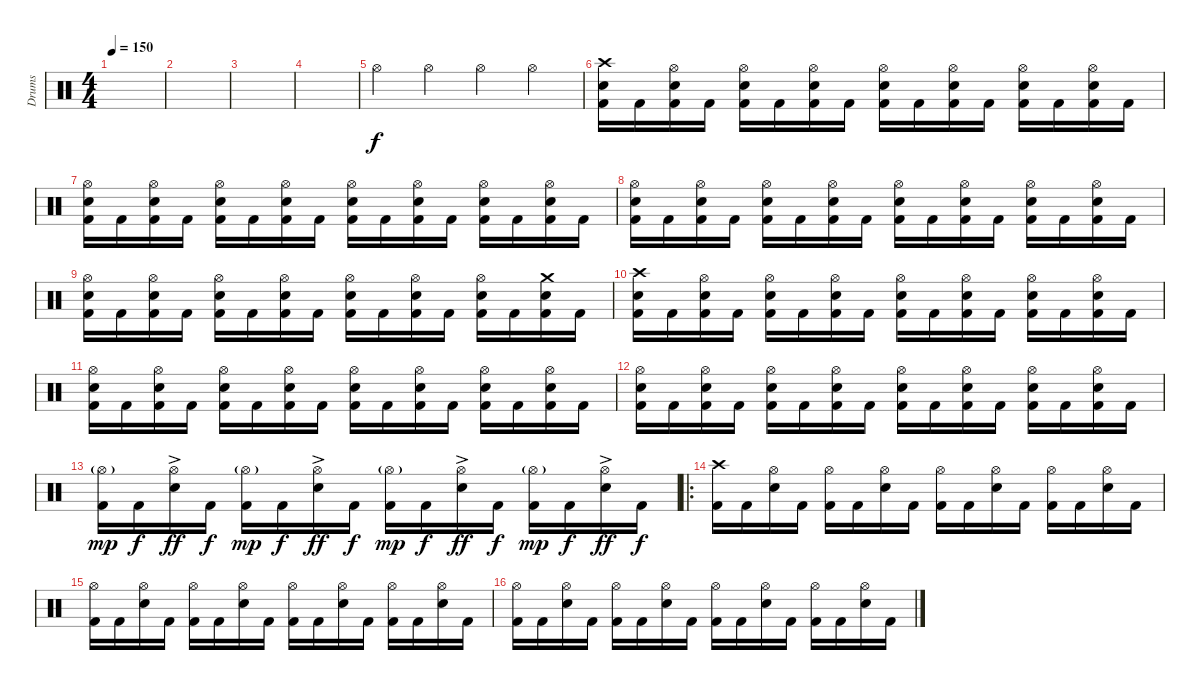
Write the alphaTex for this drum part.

\track ("Drums" "Drums") {instrument percussion}
\staff {score}
\articulation defaults
\ts (4 4)
\tempo 150
\clef neutral
\ks c
|
|
|
|
"Hi-Hat (open)".4 "Hi-Hat (open)".4 "Hi-Hat (open)".4 "Hi-Hat (open)".4 |
("Crash high (hit)" "Electric Snare (hit)" "Kick (hit) 2").16 "Kick (hit) 2".16 ("Hi-Hat (open)" "Electric Snare (hit)" "Kick (hit) 2").16 "Kick (hit) 2".16 ("Hi-Hat (open)" "Electric Snare (hit)" "Kick (hit) 2").16 "Kick (hit) 2".16 ("Hi-Hat (open)" "Electric Snare (hit)" "Kick (hit) 2").16 "Kick (hit) 2".16 ("Hi-Hat (open)" "Electric Snare (hit)" "Kick (hit) 2").16 "Kick (hit) 2".16 ("Hi-Hat (open)" "Electric Snare (hit)" "Kick (hit) 2").16 "Kick (hit) 2".16 ("Hi-Hat (open)" "Electric Snare (hit)" "Kick (hit) 2").16 "Kick (hit) 2".16 ("Hi-Hat (open)" "Electric Snare (hit)" "Kick (hit) 2").16 "Kick (hit) 2".16 |
("Hi-Hat (open)" "Electric Snare (hit)" "Kick (hit) 2").16 "Kick (hit) 2".16 ("Hi-Hat (open)" "Electric Snare (hit)" "Kick (hit) 2").16 "Kick (hit) 2".16 ("Hi-Hat (open)" "Electric Snare (hit)" "Kick (hit) 2").16 "Kick (hit) 2".16 ("Hi-Hat (open)" "Electric Snare (hit)" "Kick (hit) 2").16 "Kick (hit) 2".16 ("Hi-Hat (open)" "Electric Snare (hit)" "Kick (hit) 2").16 "Kick (hit) 2".16 ("Hi-Hat (open)" "Electric Snare (hit)" "Kick (hit) 2").16 "Kick (hit) 2".16 ("Hi-Hat (open)" "Electric Snare (hit)" "Kick (hit) 2").16 "Kick (hit) 2".16 ("Hi-Hat (open)" "Electric Snare (hit)" "Kick (hit) 2").16 "Kick (hit) 2".16 |
("Hi-Hat (open)" "Electric Snare (hit)" "Kick (hit) 2").16 "Kick (hit) 2".16 ("Hi-Hat (open)" "Electric Snare (hit)" "Kick (hit) 2").16 "Kick (hit) 2".16 ("Hi-Hat (open)" "Electric Snare (hit)" "Kick (hit) 2").16 "Kick (hit) 2".16 ("Hi-Hat (open)" "Electric Snare (hit)" "Kick (hit) 2").16 "Kick (hit) 2".16 ("Hi-Hat (open)" "Electric Snare (hit)" "Kick (hit) 2").16 "Kick (hit) 2".16 ("Hi-Hat (open)" "Electric Snare (hit)" "Kick (hit) 2").16 "Kick (hit) 2".16 ("Hi-Hat (open)" "Electric Snare (hit)" "Kick (hit) 2").16 "Kick (hit) 2".16 ("Hi-Hat (open)" "Electric Snare (hit)" "Kick (hit) 2").16 "Kick (hit) 2".16 |
("Hi-Hat (open)" "Electric Snare (hit)" "Kick (hit) 2").16 "Kick (hit) 2".16 ("Hi-Hat (open)" "Electric Snare (hit)" "Kick (hit) 2").16 "Kick (hit) 2".16 ("Hi-Hat (open)" "Electric Snare (hit)" "Kick (hit) 2").16 "Kick (hit) 2".16 ("Hi-Hat (open)" "Electric Snare (hit)" "Kick (hit) 2").16 "Kick (hit) 2".16 ("Hi-Hat (open)" "Electric Snare (hit)" "Kick (hit) 2").16 "Kick (hit) 2".16 ("Hi-Hat (open)" "Electric Snare (hit)" "Kick (hit) 2").16 "Kick (hit) 2".16 ("Hi-Hat (open)" "Electric Snare (hit)" "Kick (hit) 2").16 "Kick (hit) 2".16 ("Crash medium (hit)" "Electric Snare (hit)" "Kick (hit) 2").16 "Kick (hit) 2".16 |
("Crash high (hit)" "Electric Snare (hit)" "Kick (hit) 2").16 "Kick (hit) 2".16 ("Hi-Hat (open)" "Electric Snare (hit)" "Kick (hit) 2").16 "Kick (hit) 2".16 ("Hi-Hat (open)" "Electric Snare (hit)" "Kick (hit) 2").16 "Kick (hit) 2".16 ("Hi-Hat (open)" "Electric Snare (hit)" "Kick (hit) 2").16 "Kick (hit) 2".16 ("Hi-Hat (open)" "Electric Snare (hit)" "Kick (hit) 2").16 "Kick (hit) 2".16 ("Hi-Hat (open)" "Electric Snare (hit)" "Kick (hit) 2").16 "Kick (hit) 2".16 ("Hi-Hat (open)" "Electric Snare (hit)" "Kick (hit) 2").16 "Kick (hit) 2".16 ("Hi-Hat (open)" "Electric Snare (hit)" "Kick (hit) 2").16 "Kick (hit) 2".16 |
("Hi-Hat (open)" "Electric Snare (hit)" "Kick (hit) 2").16 "Kick (hit) 2".16 ("Hi-Hat (open)" "Electric Snare (hit)" "Kick (hit) 2").16 "Kick (hit) 2".16 ("Hi-Hat (open)" "Electric Snare (hit)" "Kick (hit) 2").16 "Kick (hit) 2".16 ("Hi-Hat (open)" "Electric Snare (hit)" "Kick (hit) 2").16 "Kick (hit) 2".16 ("Hi-Hat (open)" "Electric Snare (hit)" "Kick (hit) 2").16 "Kick (hit) 2".16 ("Hi-Hat (open)" "Electric Snare (hit)" "Kick (hit) 2").16 "Kick (hit) 2".16 ("Hi-Hat (open)" "Electric Snare (hit)" "Kick (hit) 2").16 "Kick (hit) 2".16 ("Hi-Hat (open)" "Electric Snare (hit)" "Kick (hit) 2").16 "Kick (hit) 2".16 |
("Hi-Hat (open)" "Electric Snare (hit)" "Kick (hit) 2").16 "Kick (hit) 2".16 ("Hi-Hat (open)" "Electric Snare (hit)" "Kick (hit) 2").16 "Kick (hit) 2".16 ("Hi-Hat (open)" "Electric Snare (hit)" "Kick (hit) 2").16 "Kick (hit) 2".16 ("Hi-Hat (open)" "Electric Snare (hit)" "Kick (hit) 2").16 "Kick (hit) 2".16 ("Hi-Hat (open)" "Electric Snare (hit)" "Kick (hit) 2").16 "Kick (hit) 2".16 ("Hi-Hat (open)" "Electric Snare (hit)" "Kick (hit) 2").16 "Kick (hit) 2".16 ("Hi-Hat (open)" "Electric Snare (hit)" "Kick (hit) 2").16 "Kick (hit) 2".16 ("Hi-Hat (open)" "Electric Snare (hit)" "Kick (hit) 2").16 "Kick (hit) 2".16 |
("Hi-Hat (open)"{g} "Kick (hit) 2").16{dy mp} "Kick (hit) 2".16{dy f} ("Hi-Hat (open)"{ac} "Electric Snare (hit)").16{dy ff} "Kick (hit) 2".16{dy f} ("Hi-Hat (open)"{g} "Kick (hit) 2").16{dy mp} "Kick (hit) 2".16{dy f} ("Hi-Hat (open)"{ac} "Electric Snare (hit)").16{dy ff} "Kick (hit) 2".16{dy f} ("Hi-Hat (open)"{g} "Kick (hit) 2").16{dy mp} "Kick (hit) 2".16{dy f} ("Hi-Hat (open)"{ac} "Electric Snare (hit)").16{dy ff} "Kick (hit) 2".16{dy f} ("Hi-Hat (open)"{g} "Kick (hit) 2").16{dy mp} "Kick (hit) 2".16{dy f} ("Hi-Hat (open)"{ac} "Electric Snare (hit)").16{dy ff} "Kick (hit) 2".16{dy f} |
\ro
("Crash high (hit)" "Kick (hit) 2").16 "Kick (hit) 2".16 ("Hi-Hat (open)" "Electric Snare (hit)").16 "Kick (hit) 2".16 ("Hi-Hat (open)" "Kick (hit) 2").16 "Kick (hit) 2".16 ("Hi-Hat (open)" "Electric Snare (hit)").16 "Kick (hit) 2".16 ("Hi-Hat (open)" "Kick (hit) 2").16 "Kick (hit) 2".16 ("Hi-Hat (open)" "Electric Snare (hit)").16 "Kick (hit) 2".16 ("Hi-Hat (open)" "Kick (hit) 2").16 "Kick (hit) 2".16 ("Hi-Hat (open)" "Electric Snare (hit)").16 "Kick (hit) 2".16 |
("Hi-Hat (open)" "Kick (hit) 2").16 "Kick (hit) 2".16 ("Hi-Hat (open)" "Electric Snare (hit)").16 "Kick (hit) 2".16 ("Hi-Hat (open)" "Kick (hit) 2").16 "Kick (hit) 2".16 ("Hi-Hat (open)" "Electric Snare (hit)").16 "Kick (hit) 2".16 ("Hi-Hat (open)" "Kick (hit) 2").16 "Kick (hit) 2".16 ("Hi-Hat (open)" "Electric Snare (hit)").16 "Kick (hit) 2".16 ("Hi-Hat (open)" "Kick (hit) 2").16 "Kick (hit) 2".16 ("Hi-Hat (open)" "Electric Snare (hit)").16 "Kick (hit) 2".16 |
("Hi-Hat (open)" "Kick (hit) 2").16 "Kick (hit) 2".16 ("Hi-Hat (open)" "Electric Snare (hit)").16 "Kick (hit) 2".16 ("Hi-Hat (open)" "Kick (hit) 2").16 "Kick (hit) 2".16 ("Hi-Hat (open)" "Electric Snare (hit)").16 "Kick (hit) 2".16 ("Hi-Hat (open)" "Kick (hit) 2").16 "Kick (hit) 2".16 ("Hi-Hat (open)" "Electric Snare (hit)").16 "Kick (hit) 2".16 ("Hi-Hat (open)" "Kick (hit) 2").16 "Kick (hit) 2".16 ("Hi-Hat (open)" "Electric Snare (hit)").16 "Kick (hit) 2".16
